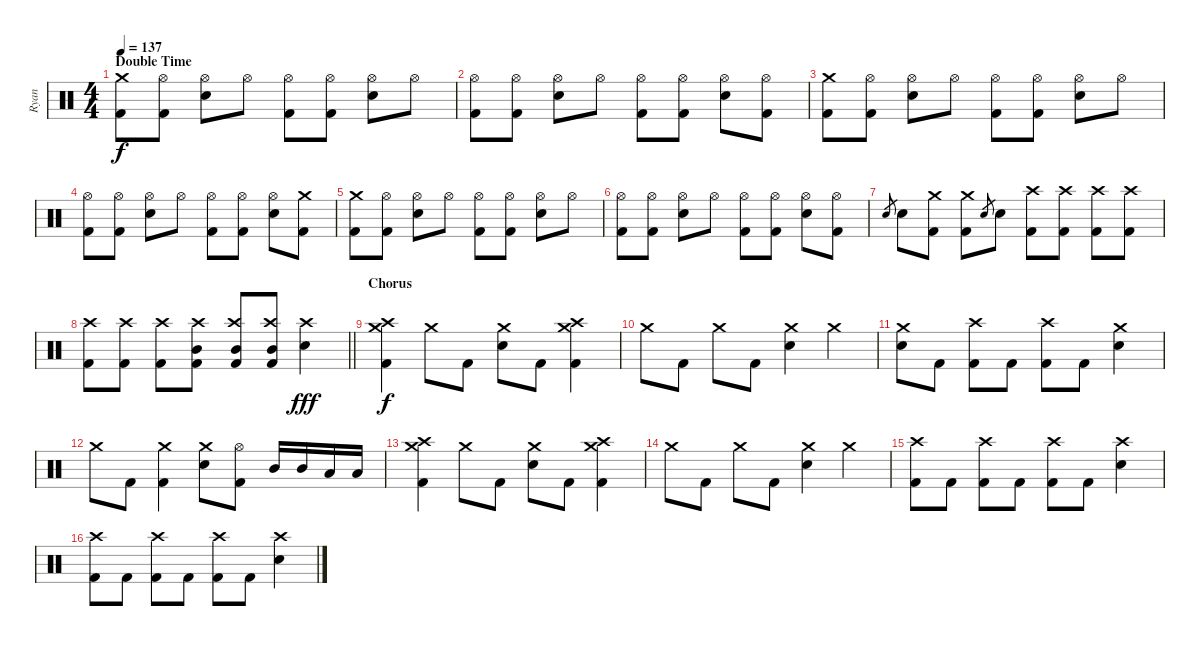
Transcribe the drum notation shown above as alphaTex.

\track ("Ryan" "Ryan") {instrument percussion}
\staff {score}
\articulation defaults
\ts (4 4)
\section ("" "Double Time")
\tempo 137
\clef neutral
\ks c
("Crash medium (hit)" "Kick (hit) 2").8{dy f} ("Hi-Hat (open)" "Kick (hit) 2").8 ("Hi-Hat (open)" "Electric Snare (hit)").8 "Hi-Hat (open)".8 ("Hi-Hat (open)" "Kick (hit) 2").8 ("Hi-Hat (open)" "Kick (hit) 2").8 ("Hi-Hat (open)" "Electric Snare (hit)").8 "Hi-Hat (open)".8 |
("Hi-Hat (open)" "Kick (hit) 2").8 ("Hi-Hat (open)" "Kick (hit) 2").8 ("Hi-Hat (open)" "Electric Snare (hit)").8 "Hi-Hat (open)".8 ("Hi-Hat (open)" "Kick (hit) 2").8 ("Hi-Hat (open)" "Kick (hit) 2").8 ("Hi-Hat (open)" "Electric Snare (hit)").8 ("Hi-Hat (open)" "Kick (hit) 2").8 |
("Crash medium (hit)" "Kick (hit) 2").8 ("Hi-Hat (open)" "Kick (hit) 2").8 ("Hi-Hat (open)" "Electric Snare (hit)").8 "Hi-Hat (open)".8 ("Hi-Hat (open)" "Kick (hit) 2").8 ("Hi-Hat (open)" "Kick (hit) 2").8 ("Hi-Hat (open)" "Electric Snare (hit)").8 "Hi-Hat (open)".8 |
("Hi-Hat (open)" "Kick (hit) 2").8 ("Hi-Hat (open)" "Kick (hit) 2").8 ("Hi-Hat (open)" "Electric Snare (hit)").8 "Hi-Hat (open)".8 ("Hi-Hat (open)" "Kick (hit) 2").8 ("Hi-Hat (open)" "Kick (hit) 2").8 ("Hi-Hat (open)" "Electric Snare (hit)").8 ("Crash medium (hit)" "Kick (hit) 2").8 |
("Crash medium (hit)" "Kick (hit) 2").8 ("Hi-Hat (open)" "Kick (hit) 2").8 ("Hi-Hat (open)" "Electric Snare (hit)").8 "Hi-Hat (open)".8 ("Hi-Hat (open)" "Kick (hit) 2").8 ("Hi-Hat (open)" "Kick (hit) 2").8 ("Hi-Hat (open)" "Electric Snare (hit)").8 "Hi-Hat (open)".8 |
("Hi-Hat (open)" "Kick (hit) 2").8 ("Hi-Hat (open)" "Kick (hit) 2").8 ("Hi-Hat (open)" "Electric Snare (hit)").8 "Hi-Hat (open)".8 ("Hi-Hat (open)" "Kick (hit) 2").8 ("Hi-Hat (open)" "Kick (hit) 2").8 ("Hi-Hat (open)" "Electric Snare (hit)").8 ("Hi-Hat (open)" "Kick (hit) 2").8 |
"Electric Snare (hit)".8{gr} "Electric Snare (hit)".8 ("Crash medium (hit)" "Kick (hit) 2").8 ("Crash medium (hit)" "Kick (hit) 2").8 "Electric Snare (hit)".8{gr} "Electric Snare (hit)".8 ("Crash high (hit)" "Kick (hit) 2").8 ("Crash high (hit)" "Kick (hit) 2").8 ("Crash high (hit)" "Kick (hit) 2").8 ("Crash high (hit)" "Kick (hit) 2").8 |
\barLineRight lightlight
("Crash high (hit)" "Kick (hit) 2").8 ("Crash high (hit)" "Kick (hit) 2").8 ("Crash high (hit)" "Kick (hit) 2").8 ("Crash high (hit)" "Mid Tom (hit)" "Kick (hit) 2").8 ("Crash high (hit)" "Mid Tom (hit)" "Kick (hit) 2").8 ("Crash high (hit)" "Mid Tom (hit)" "Kick (hit) 2").8 ("Crash high (hit)" "Electric Snare (hit)").4{dy fff} |
\section ("" "Chorus")
("Crash medium (hit)" "Crash high (hit)" "Kick (hit) 2").4{dy f} "Crash medium (hit)".8 "Kick (hit) 2".8 ("Crash medium (hit)" "Electric Snare (hit)").8 "Kick (hit) 2".8 ("Crash medium (hit)" "Crash high (hit)" "Kick (hit) 2").4 |
"Crash medium (hit)".8 "Kick (hit) 2".8 "Crash medium (hit)".8 "Kick (hit) 2".8 ("Crash medium (hit)" "Electric Snare (hit)").4 "Crash medium (hit)".4 |
("Crash medium (hit)" "Electric Snare (hit)").8 "Kick (hit) 2".8 ("Crash high (hit)" "Kick (hit) 2").8 "Kick (hit) 2".8 ("Crash high (hit)" "Kick (hit) 2").8 "Kick (hit) 2".8 ("Crash medium (hit)" "Electric Snare (hit)").4 |
"Crash medium (hit)".8 "Kick (hit) 2".8 ("Crash medium (hit)" "Kick (hit) 2").4 ("Crash medium (hit)" "Electric Snare (hit)").8 ("Hi-Hat (open)" "Kick (hit) 2").8 "Mid Tom (hit)".16 "Mid Tom (hit)".16 "Low Tom (hit)".16 "Low Tom (hit)".16 |
("Crash medium (hit)" "Crash high (hit)" "Kick (hit) 2").4 "Crash medium (hit)".8 "Kick (hit) 2".8 ("Crash medium (hit)" "Electric Snare (hit)").8 "Kick (hit) 2".8 ("Crash medium (hit)" "Crash high (hit)" "Kick (hit) 2").4 |
"Crash medium (hit)".8 "Kick (hit) 2".8 "Crash medium (hit)".8 "Kick (hit) 2".8 ("Crash medium (hit)" "Electric Snare (hit)").4 "Crash medium (hit)".4 |
("Crash high (hit)" "Kick (hit) 2").8 "Kick (hit) 2".8 ("Crash high (hit)" "Kick (hit) 2").8 "Kick (hit) 2".8 ("Crash high (hit)" "Kick (hit) 2").8 "Kick (hit) 2".8 ("Crash high (hit)" "Electric Snare (hit)").4 |
("Crash high (hit)" "Kick (hit) 2").8 "Kick (hit) 2".8 ("Crash high (hit)" "Kick (hit) 2").8 "Kick (hit) 2".8 ("Crash high (hit)" "Kick (hit) 2").8 "Kick (hit) 2".8 ("Crash high (hit)" "Electric Snare (hit)").4
